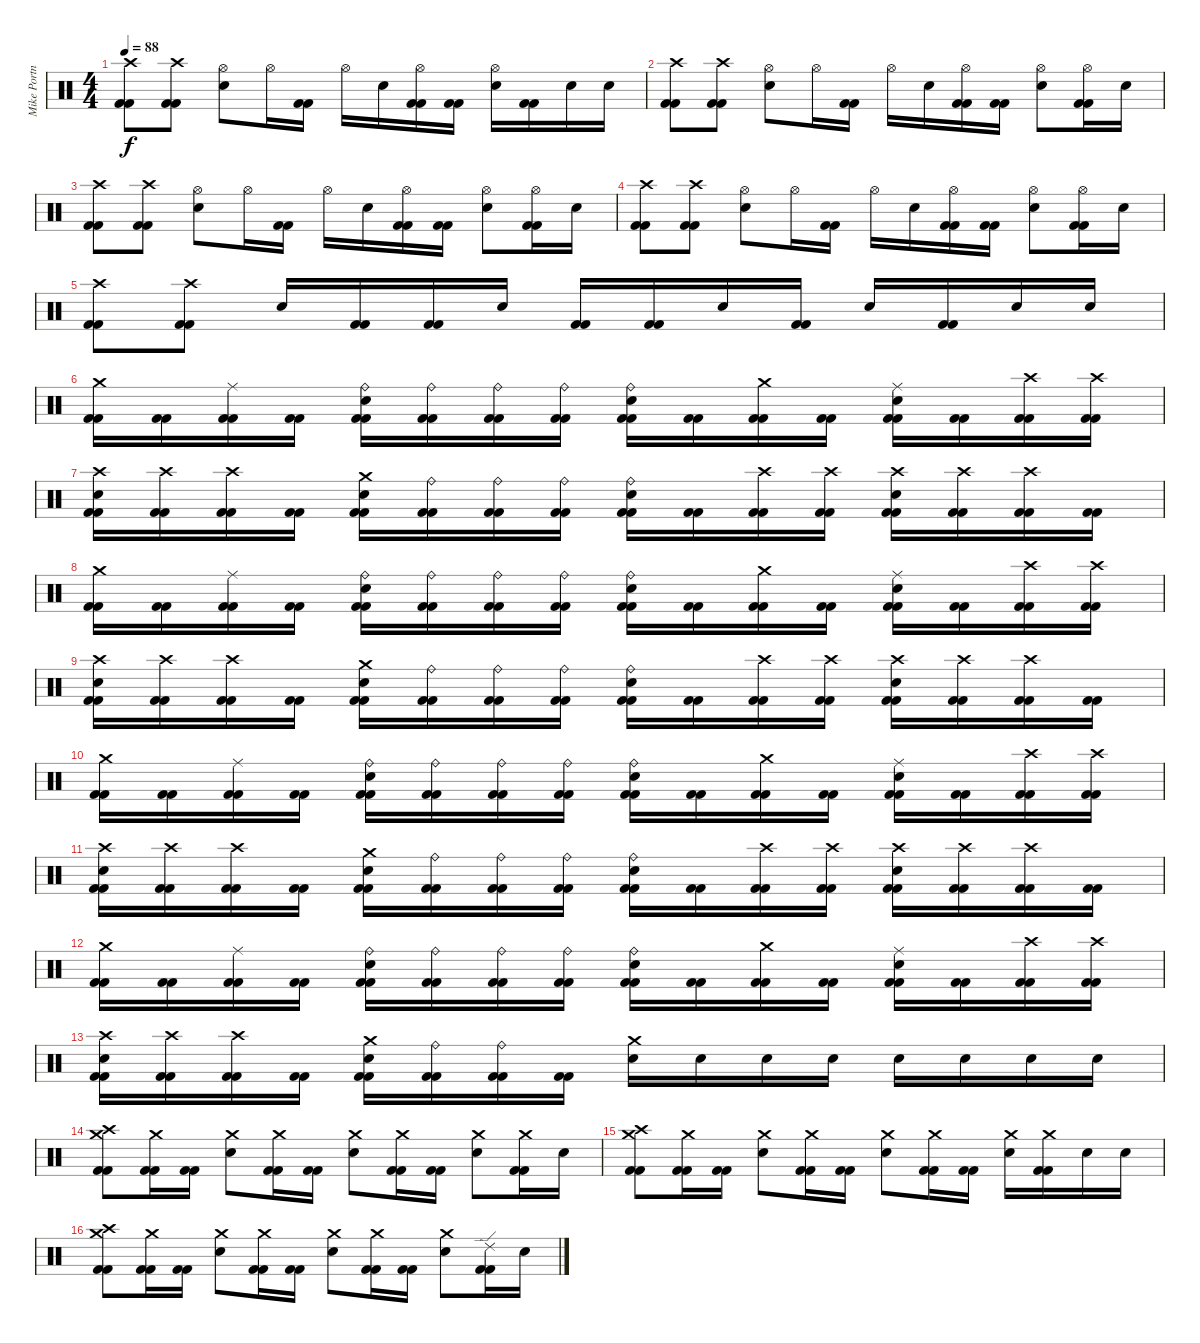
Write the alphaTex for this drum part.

\track ("Mike Portnoy" "Mike Portn") {instrument percussion}
\staff {score}
\articulation defaults
\ts (4 4)
\tempo 88
\clef neutral
\ks c
("Crash high (hit)" "Kick (hit) 2" "Kick (hit) 2").8{dy f} ("Crash high (hit)" "Kick (hit) 2" "Kick (hit) 2").8 ("Hi-Hat (open)" "Snare (hit) 2").8 "Hi-Hat (open)".16 ("Kick (hit) 2" "Kick (hit) 2").16 "Hi-Hat (open)".16 "Snare (hit) 2".16 ("Hi-Hat (open)" "Kick (hit) 2" "Kick (hit) 2").16 ("Kick (hit) 2" "Kick (hit) 2").16 ("Hi-Hat (open)" "Snare (hit) 2").16 ("Kick (hit) 2" "Kick (hit) 2").16 "Snare (hit) 2".16 "Snare (hit) 2".16 |
("Crash high (hit)" "Kick (hit) 2" "Kick (hit) 2").8 ("Crash high (hit)" "Kick (hit) 2" "Kick (hit) 2").8 ("Hi-Hat (open)" "Snare (hit) 2").8 "Hi-Hat (open)".16 ("Kick (hit) 2" "Kick (hit) 2").16 "Hi-Hat (open)".16 "Snare (hit) 2".16 ("Hi-Hat (open)" "Kick (hit) 2" "Kick (hit) 2").16 ("Kick (hit) 2" "Kick (hit) 2").16 ("Hi-Hat (open)" "Snare (hit) 2").8 ("Hi-Hat (open)" "Kick (hit) 2" "Kick (hit) 2").16 "Snare (hit) 2".16 |
("Crash high (hit)" "Kick (hit) 2" "Kick (hit) 2").8 ("Crash high (hit)" "Kick (hit) 2" "Kick (hit) 2").8 ("Hi-Hat (open)" "Snare (hit) 2").8 "Hi-Hat (open)".16 ("Kick (hit) 2" "Kick (hit) 2").16 "Hi-Hat (open)".16 "Snare (hit) 2".16 ("Hi-Hat (open)" "Kick (hit) 2" "Kick (hit) 2").16 ("Kick (hit) 2" "Kick (hit) 2").16 ("Hi-Hat (open)" "Snare (hit) 2").8 ("Hi-Hat (open)" "Kick (hit) 2" "Kick (hit) 2").16 "Snare (hit) 2".16 |
("Crash high (hit)" "Kick (hit) 2" "Kick (hit) 2").8 ("Crash high (hit)" "Kick (hit) 2" "Kick (hit) 2").8 ("Hi-Hat (open)" "Snare (hit) 2").8 "Hi-Hat (open)".16 ("Kick (hit) 2" "Kick (hit) 2").16 "Hi-Hat (open)".16 "Snare (hit) 2".16 ("Hi-Hat (open)" "Kick (hit) 2" "Kick (hit) 2").16 ("Kick (hit) 2" "Kick (hit) 2").16 ("Hi-Hat (open)" "Snare (hit) 2").8 ("Hi-Hat (open)" "Kick (hit) 2" "Kick (hit) 2").16 "Snare (hit) 2".16 |
("Crash high (hit)" "Kick (hit) 2" "Kick (hit) 2").8 ("Crash high (hit)" "Kick (hit) 2" "Kick (hit) 2").8 "Snare (hit) 2".16 ("Kick (hit) 2" "Kick (hit) 2").16 ("Kick (hit) 2" "Kick (hit) 2").16 "Snare (hit) 2".16 ("Kick (hit) 2" "Kick (hit) 2").16 ("Kick (hit) 2" "Kick (hit) 2").16 "Snare (hit) 2".16 ("Kick (hit) 2" "Kick (hit) 2").16 "Snare (hit) 2".16 ("Kick (hit) 2" "Kick (hit) 2").16 "Snare (hit) 2".16 "Snare (hit) 2".16 |
("Crash medium (hit)" "Kick (hit) 2" "Kick (hit) 2").16 ("Kick (hit) 2" "Kick (hit) 2").16 ("Ride (middle)" "Kick (hit) 2" "Kick (hit) 2").16 ("Kick (hit) 2" "Kick (hit) 2").16 ("Ride (bell)" "Snare (hit) 2" "Kick (hit) 2" "Kick (hit) 2").16 ("Ride (bell)" "Kick (hit) 2" "Kick (hit) 2").16 ("Ride (bell)" "Kick (hit) 2" "Kick (hit) 2").16 ("Ride (bell)" "Kick (hit) 2" "Kick (hit) 2").16 ("Ride (bell)" "Snare (hit) 2" "Kick (hit) 2" "Kick (hit) 2").16 ("Kick (hit) 2" "Kick (hit) 2").16 ("Crash medium (hit)" "Kick (hit) 2" "Kick (hit) 2").16 ("Kick (hit) 2" "Kick (hit) 2").16 ("Ride (middle)" "Snare (hit) 2" "Kick (hit) 2" "Kick (hit) 2").16 ("Kick (hit) 2" "Kick (hit) 2").16 ("Crash high (hit)" "Kick (hit) 2" "Kick (hit) 2").16 ("Crash high (hit)" "Kick (hit) 2" "Kick (hit) 2").16 |
("Crash high (hit)" "Snare (hit) 2" "Kick (hit) 2" "Kick (hit) 2").16 ("Crash high (hit)" "Kick (hit) 2" "Kick (hit) 2").16 ("Crash high (hit)" "Kick (hit) 2" "Kick (hit) 2").16 ("Kick (hit) 2" "Kick (hit) 2").16 ("Crash medium (hit)" "Snare (hit) 2" "Kick (hit) 2" "Kick (hit) 2").16 ("Ride (bell)" "Kick (hit) 2" "Kick (hit) 2").16 ("Ride (bell)" "Kick (hit) 2" "Kick (hit) 2").16 ("Ride (bell)" "Kick (hit) 2" "Kick (hit) 2").16 ("Ride (bell)" "Snare (hit) 2" "Kick (hit) 2" "Kick (hit) 2").16 ("Kick (hit) 2" "Kick (hit) 2").16 ("Crash high (hit)" "Kick (hit) 2" "Kick (hit) 2").16 ("Crash high (hit)" "Kick (hit) 2" "Kick (hit) 2").16 ("Crash high (hit)" "Snare (hit) 2" "Kick (hit) 2" "Kick (hit) 2").16 ("Crash high (hit)" "Kick (hit) 2" "Kick (hit) 2").16 ("Crash high (hit)" "Kick (hit) 2" "Kick (hit) 2").16 ("Kick (hit) 2" "Kick (hit) 2").16 |
("Crash medium (hit)" "Kick (hit) 2" "Kick (hit) 2").16 ("Kick (hit) 2" "Kick (hit) 2").16 ("Ride (middle)" "Kick (hit) 2" "Kick (hit) 2").16 ("Kick (hit) 2" "Kick (hit) 2").16 ("Ride (bell)" "Snare (hit) 2" "Kick (hit) 2" "Kick (hit) 2").16 ("Ride (bell)" "Kick (hit) 2" "Kick (hit) 2").16 ("Ride (bell)" "Kick (hit) 2" "Kick (hit) 2").16 ("Ride (bell)" "Kick (hit) 2" "Kick (hit) 2").16 ("Ride (bell)" "Snare (hit) 2" "Kick (hit) 2" "Kick (hit) 2").16 ("Kick (hit) 2" "Kick (hit) 2").16 ("Crash medium (hit)" "Kick (hit) 2" "Kick (hit) 2").16 ("Kick (hit) 2" "Kick (hit) 2").16 ("Ride (middle)" "Snare (hit) 2" "Kick (hit) 2" "Kick (hit) 2").16 ("Kick (hit) 2" "Kick (hit) 2").16 ("Crash high (hit)" "Kick (hit) 2" "Kick (hit) 2").16 ("Crash high (hit)" "Kick (hit) 2" "Kick (hit) 2").16 |
("Crash high (hit)" "Snare (hit) 2" "Kick (hit) 2" "Kick (hit) 2").16 ("Crash high (hit)" "Kick (hit) 2" "Kick (hit) 2").16 ("Crash high (hit)" "Kick (hit) 2" "Kick (hit) 2").16 ("Kick (hit) 2" "Kick (hit) 2").16 ("Crash medium (hit)" "Snare (hit) 2" "Kick (hit) 2" "Kick (hit) 2").16 ("Ride (bell)" "Kick (hit) 2" "Kick (hit) 2").16 ("Ride (bell)" "Kick (hit) 2" "Kick (hit) 2").16 ("Ride (bell)" "Kick (hit) 2" "Kick (hit) 2").16 ("Ride (bell)" "Snare (hit) 2" "Kick (hit) 2" "Kick (hit) 2").16 ("Kick (hit) 2" "Kick (hit) 2").16 ("Crash high (hit)" "Kick (hit) 2" "Kick (hit) 2").16 ("Crash high (hit)" "Kick (hit) 2" "Kick (hit) 2").16 ("Crash high (hit)" "Snare (hit) 2" "Kick (hit) 2" "Kick (hit) 2").16 ("Crash high (hit)" "Kick (hit) 2" "Kick (hit) 2").16 ("Crash high (hit)" "Kick (hit) 2" "Kick (hit) 2").16 ("Kick (hit) 2" "Kick (hit) 2").16 |
("Crash medium (hit)" "Kick (hit) 2" "Kick (hit) 2").16 ("Kick (hit) 2" "Kick (hit) 2").16 ("Ride (middle)" "Kick (hit) 2" "Kick (hit) 2").16 ("Kick (hit) 2" "Kick (hit) 2").16 ("Ride (bell)" "Snare (hit) 2" "Kick (hit) 2" "Kick (hit) 2").16 ("Ride (bell)" "Kick (hit) 2" "Kick (hit) 2").16 ("Ride (bell)" "Kick (hit) 2" "Kick (hit) 2").16 ("Ride (bell)" "Kick (hit) 2" "Kick (hit) 2").16 ("Ride (bell)" "Snare (hit) 2" "Kick (hit) 2" "Kick (hit) 2").16 ("Kick (hit) 2" "Kick (hit) 2").16 ("Crash medium (hit)" "Kick (hit) 2" "Kick (hit) 2").16 ("Kick (hit) 2" "Kick (hit) 2").16 ("Ride (middle)" "Snare (hit) 2" "Kick (hit) 2" "Kick (hit) 2").16 ("Kick (hit) 2" "Kick (hit) 2").16 ("Crash high (hit)" "Kick (hit) 2" "Kick (hit) 2").16 ("Crash high (hit)" "Kick (hit) 2" "Kick (hit) 2").16 |
("Crash high (hit)" "Snare (hit) 2" "Kick (hit) 2" "Kick (hit) 2").16 ("Crash high (hit)" "Kick (hit) 2" "Kick (hit) 2").16 ("Crash high (hit)" "Kick (hit) 2" "Kick (hit) 2").16 ("Kick (hit) 2" "Kick (hit) 2").16 ("Crash medium (hit)" "Snare (hit) 2" "Kick (hit) 2" "Kick (hit) 2").16 ("Ride (bell)" "Kick (hit) 2" "Kick (hit) 2").16 ("Ride (bell)" "Kick (hit) 2" "Kick (hit) 2").16 ("Ride (bell)" "Kick (hit) 2" "Kick (hit) 2").16 ("Ride (bell)" "Snare (hit) 2" "Kick (hit) 2" "Kick (hit) 2").16 ("Kick (hit) 2" "Kick (hit) 2").16 ("Crash high (hit)" "Kick (hit) 2" "Kick (hit) 2").16 ("Crash high (hit)" "Kick (hit) 2" "Kick (hit) 2").16 ("Crash high (hit)" "Snare (hit) 2" "Kick (hit) 2" "Kick (hit) 2").16 ("Crash high (hit)" "Kick (hit) 2" "Kick (hit) 2").16 ("Crash high (hit)" "Kick (hit) 2" "Kick (hit) 2").16 ("Kick (hit) 2" "Kick (hit) 2").16 |
("Crash medium (hit)" "Kick (hit) 2" "Kick (hit) 2").16 ("Kick (hit) 2" "Kick (hit) 2").16 ("Ride (middle)" "Kick (hit) 2" "Kick (hit) 2").16 ("Kick (hit) 2" "Kick (hit) 2").16 ("Ride (bell)" "Snare (hit) 2" "Kick (hit) 2" "Kick (hit) 2").16 ("Ride (bell)" "Kick (hit) 2" "Kick (hit) 2").16 ("Ride (bell)" "Kick (hit) 2" "Kick (hit) 2").16 ("Ride (bell)" "Kick (hit) 2" "Kick (hit) 2").16 ("Ride (bell)" "Snare (hit) 2" "Kick (hit) 2" "Kick (hit) 2").16 ("Kick (hit) 2" "Kick (hit) 2").16 ("Crash medium (hit)" "Kick (hit) 2" "Kick (hit) 2").16 ("Kick (hit) 2" "Kick (hit) 2").16 ("Ride (middle)" "Snare (hit) 2" "Kick (hit) 2" "Kick (hit) 2").16 ("Kick (hit) 2" "Kick (hit) 2").16 ("Crash high (hit)" "Kick (hit) 2" "Kick (hit) 2").16 ("Crash high (hit)" "Kick (hit) 2" "Kick (hit) 2").16 |
("Crash high (hit)" "Snare (hit) 2" "Kick (hit) 2" "Kick (hit) 2").16 ("Crash high (hit)" "Kick (hit) 2" "Kick (hit) 2").16 ("Crash high (hit)" "Kick (hit) 2" "Kick (hit) 2").16 ("Kick (hit) 2" "Kick (hit) 2").16 ("Crash medium (hit)" "Snare (hit) 2" "Kick (hit) 2" "Kick (hit) 2").16 ("Ride (bell)" "Kick (hit) 2" "Kick (hit) 2").16 ("Ride (bell)" "Kick (hit) 2" "Kick (hit) 2").16 ("Kick (hit) 2" "Kick (hit) 2").16 ("Crash medium (hit)" "Snare (hit) 2").16 "Snare (hit) 2".16 "Snare (hit) 2".16 "Snare (hit) 2".16 "Snare (hit) 2".16 "Snare (hit) 2".16 "Snare (hit) 2".16 "Snare (hit) 2".16 |
("Crash medium (hit)" "Crash high (hit)" "Kick (hit) 2" "Kick (hit) 2").8 ("Crash medium (hit)" "Kick (hit) 2" "Kick (hit) 2").16 ("Kick (hit) 2" "Kick (hit) 2").16 ("Crash medium (hit)" "Snare (hit) 2").8 ("Crash medium (hit)" "Kick (hit) 2" "Kick (hit) 2").16 ("Kick (hit) 2" "Kick (hit) 2").16 ("Crash medium (hit)" "Snare (hit) 2").8 ("Crash medium (hit)" "Kick (hit) 2" "Kick (hit) 2").16 ("Kick (hit) 2" "Kick (hit) 2").16 ("Crash medium (hit)" "Snare (hit) 2").8 ("Crash medium (hit)" "Kick (hit) 2" "Kick (hit) 2").16 "Snare (hit) 2".16 |
("Crash medium (hit)" "Crash high (hit)" "Kick (hit) 2" "Kick (hit) 2").8 ("Crash medium (hit)" "Kick (hit) 2" "Kick (hit) 2").16 ("Kick (hit) 2" "Kick (hit) 2").16 ("Crash medium (hit)" "Snare (hit) 2").8 ("Crash medium (hit)" "Kick (hit) 2" "Kick (hit) 2").16 ("Kick (hit) 2" "Kick (hit) 2").16 ("Crash medium (hit)" "Snare (hit) 2").8 ("Crash medium (hit)" "Kick (hit) 2" "Kick (hit) 2").16 ("Kick (hit) 2" "Kick (hit) 2").16 ("Crash medium (hit)" "Snare (hit) 2").16 ("Crash medium (hit)" "Kick (hit) 2" "Kick (hit) 2").16 "Snare (hit) 2".16 "Snare (hit) 2".16 |
("Crash medium (hit)" "Crash high (hit)" "Kick (hit) 2" "Kick (hit) 2").8 ("Crash medium (hit)" "Kick (hit) 2" "Kick (hit) 2").16 ("Kick (hit) 2" "Kick (hit) 2").16 ("Crash medium (hit)" "Snare (hit) 2").8 ("Crash medium (hit)" "Kick (hit) 2" "Kick (hit) 2").16 ("Kick (hit) 2" "Kick (hit) 2").16 ("Crash medium (hit)" "Snare (hit) 2").8 ("Crash medium (hit)" "Kick (hit) 2" "Kick (hit) 2").16 ("Kick (hit) 2" "Kick (hit) 2").16 ("Crash medium (hit)" "Snare (hit) 2").8 ("Ride (edge) 2" "Kick (hit) 2" "Kick (hit) 2").16 "Snare (hit) 2".16
